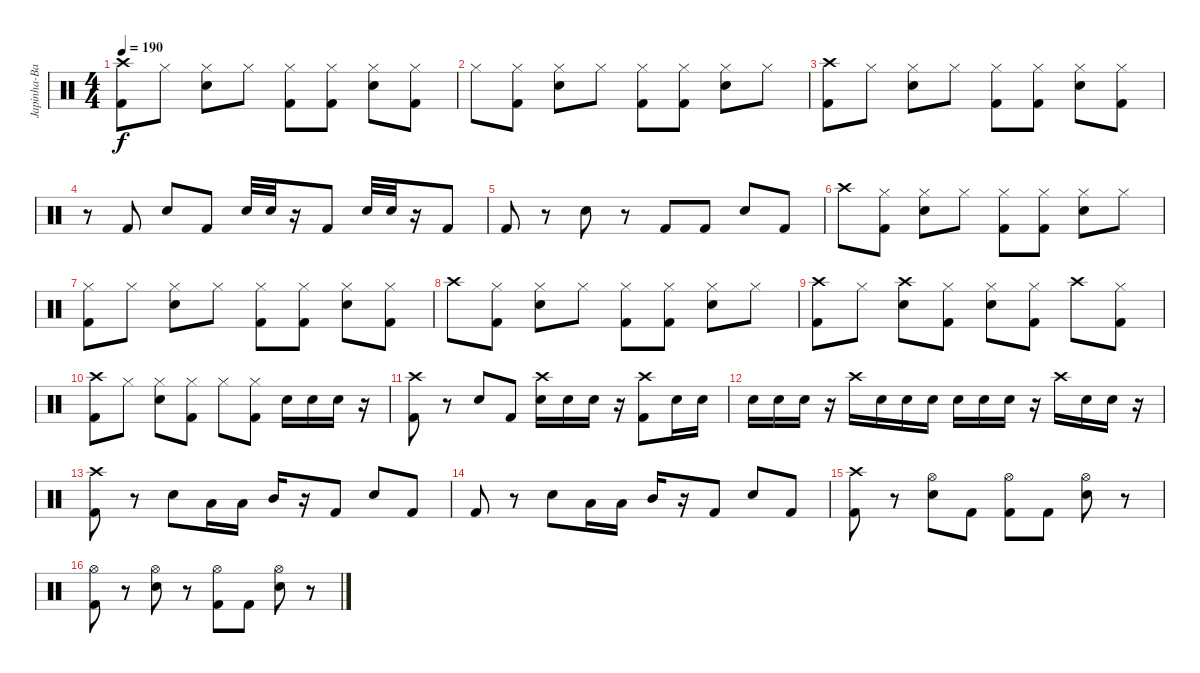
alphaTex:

\track ("Japinha-Batera" "Japinha-Ba") {instrument percussion}
\staff {score}
\articulation defaults
\ts (4 4)
\tempo 190
\clef neutral
\ks c
("Crash high (hit)" "Kick (hit) 2").8{dy f} "Hi-Hat (closed)".8 ("Hi-Hat (closed)" "Electric Snare (hit)").8 "Hi-Hat (closed)".8 ("Hi-Hat (closed)" "Kick (hit) 2").8 ("Hi-Hat (closed)" "Kick (hit) 2").8 ("Hi-Hat (closed)" "Electric Snare (hit)").8 ("Hi-Hat (closed)" "Kick (hit) 2").8 |
"Hi-Hat (closed)".8 ("Hi-Hat (closed)" "Kick (hit) 2").8 ("Hi-Hat (closed)" "Electric Snare (hit)").8 "Hi-Hat (closed)".8 ("Hi-Hat (closed)" "Kick (hit) 2").8 ("Hi-Hat (closed)" "Kick (hit) 2").8 ("Hi-Hat (closed)" "Electric Snare (hit)").8 "Hi-Hat (closed)".8 |
("Crash high (hit)" "Kick (hit) 2").8 "Hi-Hat (closed)".8 ("Hi-Hat (closed)" "Electric Snare (hit)").8 "Hi-Hat (closed)".8 ("Hi-Hat (closed)" "Kick (hit) 2").8 ("Hi-Hat (closed)" "Kick (hit) 2").8 ("Hi-Hat (closed)" "Electric Snare (hit)").8 ("Hi-Hat (closed)" "Kick (hit) 2").8 |
r.8 "Kick (hit) 2".8 "Electric Snare (hit)".8 "Kick (hit) 2".8 "Electric Snare (hit)".32 "Electric Snare (hit)".32 r.16 "Kick (hit) 2".8 "Electric Snare (hit)".32 "Electric Snare (hit)".32 r.16 "Kick (hit) 2".8 |
"Kick (hit) 2".8 r.8 "Electric Snare (hit)".8 r.8 "Kick (hit) 2".8 "Kick (hit) 2".8 "Electric Snare (hit)".8 "Kick (hit) 2".8 |
"Crash high (hit)".8 ("Hi-Hat (closed)" "Kick (hit) 2").8 ("Hi-Hat (closed)" "Electric Snare (hit)").8 "Hi-Hat (closed)".8 ("Hi-Hat (closed)" "Kick (hit) 2").8 ("Hi-Hat (closed)" "Kick (hit) 2").8 ("Hi-Hat (closed)" "Electric Snare (hit)").8 "Hi-Hat (closed)".8 |
("Hi-Hat (closed)" "Kick (hit) 2").8 "Hi-Hat (closed)".8 ("Hi-Hat (closed)" "Electric Snare (hit)").8 "Hi-Hat (closed)".8 ("Hi-Hat (closed)" "Kick (hit) 2").8 ("Hi-Hat (closed)" "Kick (hit) 2").8 ("Hi-Hat (closed)" "Electric Snare (hit)").8 ("Hi-Hat (closed)" "Kick (hit) 2").8 |
"Crash high (hit)".8 ("Hi-Hat (closed)" "Kick (hit) 2").8 ("Hi-Hat (closed)" "Electric Snare (hit)").8 "Hi-Hat (closed)".8 ("Hi-Hat (closed)" "Kick (hit) 2").8 ("Hi-Hat (closed)" "Kick (hit) 2").8 ("Hi-Hat (closed)" "Electric Snare (hit)").8 "Hi-Hat (closed)".8 |
("Crash high (hit)" "Kick (hit) 2").8 "Hi-Hat (closed)".8 ("Crash high (hit)" "Electric Snare (hit)").8 ("Hi-Hat (closed)" "Kick (hit) 2").8 ("Hi-Hat (closed)" "Electric Snare (hit)").8 ("Hi-Hat (closed)" "Kick (hit) 2").8 "Crash high (hit)".8 ("Hi-Hat (closed)" "Kick (hit) 2").8 |
("Crash high (hit)" "Kick (hit) 2").8 "Hi-Hat (closed)".8 ("Hi-Hat (closed)" "Electric Snare (hit)").8 ("Hi-Hat (closed)" "Kick (hit) 2").8 "Hi-Hat (closed)".8 ("Hi-Hat (closed)" "Kick (hit) 2").8 "Electric Snare (hit)".16 "Electric Snare (hit)".16 "Electric Snare (hit)".16 r.16 |
("Crash high (hit)" "Kick (hit) 2").8 r.8 "Electric Snare (hit)".8 "Kick (hit) 2".8 ("Crash high (hit)" "Electric Snare (hit)").16 "Electric Snare (hit)".16 "Electric Snare (hit)".16 r.16 ("Crash high (hit)" "Kick (hit) 2").8 "Electric Snare (hit)".16 "Electric Snare (hit)".16 |
"Electric Snare (hit)".16 "Electric Snare (hit)".16 "Electric Snare (hit)".16 r.16 "Crash high (hit)".16 "Electric Snare (hit)".16 "Electric Snare (hit)".16 "Electric Snare (hit)".16 "Electric Snare (hit)".16 "Electric Snare (hit)".16 "Electric Snare (hit)".16 r.16 "Crash high (hit)".16 "Electric Snare (hit)".16 "Electric Snare (hit)".16 r.16 |
("Crash high (hit)" "Kick (hit) 2").8 r.8 "Electric Snare (hit)".8 "Low Tom (hit)".16 "Low Tom (hit)".16 "Mid Tom (hit)".16 r.16 "Kick (hit) 2".8 "Electric Snare (hit)".8 "Kick (hit) 2".8 |
"Kick (hit) 2".8 r.8 "Electric Snare (hit)".8 "Low Tom (hit)".16 "Low Tom (hit)".16 "Mid Tom (hit)".16 r.16 "Kick (hit) 2".8 "Electric Snare (hit)".8 "Kick (hit) 2".8 |
("Crash high (hit)" "Kick (hit) 2").8 r.8 ("Hi-Hat (open)" "Electric Snare (hit)").8 "Kick (hit) 2".8 ("Hi-Hat (open)" "Kick (hit) 2").8 "Kick (hit) 2".8 ("Hi-Hat (open)" "Electric Snare (hit)").8 r.8 |
("Hi-Hat (open)" "Kick (hit) 2").8 r.8 ("Hi-Hat (open)" "Electric Snare (hit)").8 r.8 ("Hi-Hat (open)" "Kick (hit) 2").8 "Kick (hit) 2".8 ("Hi-Hat (open)" "Electric Snare (hit)").8 r.8
